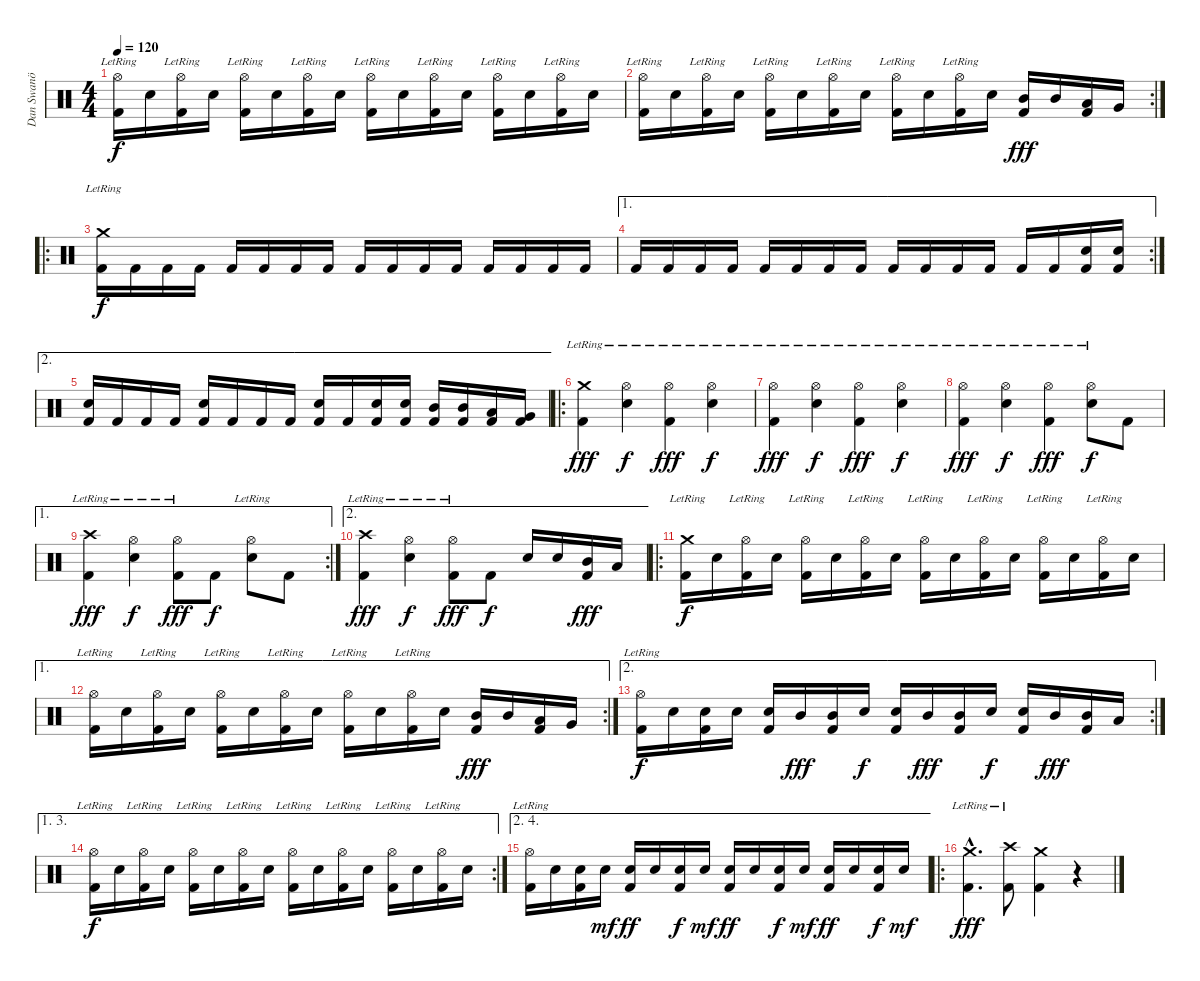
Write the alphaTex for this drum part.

\track ("Dan Swanö" "Dan Swanö") {instrument percussion}
\staff {score}
\articulation defaults
\ts (4 4)
\tempo 120
\clef neutral
\ks c
("Hi-Hat (open)"{lr} "Kick (hit) 2").16{dy f} "Electric Snare (hit)".16 ("Hi-Hat (open)"{lr} "Kick (hit) 2").16 "Electric Snare (hit)".16 ("Hi-Hat (open)"{lr} "Kick (hit) 2").16 "Electric Snare (hit)".16 ("Hi-Hat (open)"{lr} "Kick (hit) 2").16 "Electric Snare (hit)".16 ("Hi-Hat (open)"{lr} "Kick (hit) 2").16 "Electric Snare (hit)".16 ("Hi-Hat (open)"{lr} "Kick (hit) 2").16 "Electric Snare (hit)".16 ("Hi-Hat (open)"{lr} "Kick (hit) 2").16 "Electric Snare (hit)".16 ("Hi-Hat (open)"{lr} "Kick (hit) 2").16 "Electric Snare (hit)".16 |
\rc 2
("Hi-Hat (open)"{lr} "Kick (hit) 2").16 "Electric Snare (hit)".16 ("Hi-Hat (open)"{lr} "Kick (hit) 2").16 "Electric Snare (hit)".16 ("Hi-Hat (open)"{lr} "Kick (hit) 2").16 "Electric Snare (hit)".16 ("Hi-Hat (open)"{lr} "Kick (hit) 2").16 "Electric Snare (hit)".16 ("Hi-Hat (open)"{lr} "Kick (hit) 2").16 "Electric Snare (hit)".16 ("Hi-Hat (open)"{lr} "Kick (hit) 2").16 "Electric Snare (hit)".16 ("Mid Tom (hit)" "Kick (hit) 2").16{dy fff} "Mid Tom (hit)".16 ("Low Tom (hit)" "Kick (hit) 2").16 "Very Low Tom (hit)".16 |
\ro
("Crash medium (hit)"{lr} "Kick (hit) 2").16{dy f} "Kick (hit) 2".16 "Kick (hit) 2".16 "Kick (hit) 2".16 "Kick (hit) 2".16 "Kick (hit) 2".16 "Kick (hit) 2".16 "Kick (hit) 2".16 "Kick (hit) 2".16 "Kick (hit) 2".16 "Kick (hit) 2".16 "Kick (hit) 2".16 "Kick (hit) 2".16 "Kick (hit) 2".16 "Kick (hit) 2".16 "Kick (hit) 2".16 |
\ae 1
\rc 2 "Kick (hit) 2".16 "Kick (hit) 2".16 "Kick (hit) 2".16 "Kick (hit) 2".16 "Kick (hit) 2".16 "Kick (hit) 2".16 "Kick (hit) 2".16 "Kick (hit) 2".16 "Kick (hit) 2".16 "Kick (hit) 2".16 "Kick (hit) 2".16 "Kick (hit) 2".16 "Kick (hit) 2".16 "Kick (hit) 2".16
("Electric Snare (hit)" "Kick (hit) 2").16 ("Electric Snare (hit)" "Kick (hit) 2").16 |
\ae 2
("Electric Snare (hit)" "Kick (hit) 2").16 "Kick (hit) 2".16 "Kick (hit) 2".16 "Kick (hit) 2".16 ("Electric Snare (hit)" "Kick (hit) 2").16 "Kick (hit) 2".16 "Kick (hit) 2".16 "Kick (hit) 2".16 ("Electric Snare (hit)" "Kick (hit) 2").16 "Kick (hit) 2".16 ("Electric Snare (hit)" "Kick (hit) 2").16 ("Electric Snare (hit)" "Kick (hit) 2").16 ("Mid Tom (hit)" "Kick (hit) 2").16 ("Mid Tom (hit)" "Kick (hit) 2").16 ("Low Tom (hit)" "Kick (hit) 2").16 ("Very Low Tom (hit)" "Kick (hit) 2").16 |
\ro
("Crash medium (hit)"{lr} "Kick (hit) 2").4{dy fff} ("Hi-Hat (open)"{lr} "Electric Snare (hit)").4{dy f} ("Hi-Hat (open)"{lr} "Kick (hit) 2").4{dy fff} ("Hi-Hat (open)"{lr} "Electric Snare (hit)").4{dy f} |
("Hi-Hat (open)"{lr} "Kick (hit) 2").4{dy fff} ("Hi-Hat (open)"{lr} "Electric Snare (hit)").4{dy f} ("Hi-Hat (open)"{lr} "Kick (hit) 2").4{dy fff} ("Hi-Hat (open)"{lr} "Electric Snare (hit)").4{dy f} |
("Hi-Hat (open)"{lr} "Kick (hit) 2").4{dy fff} ("Hi-Hat (open)"{lr} "Electric Snare (hit)").4{dy f} ("Hi-Hat (open)"{lr} "Kick (hit) 2").4{dy fff} ("Hi-Hat (open)"{lr} "Electric Snare (hit)").8{dy f} "Kick (hit) 2".8 |
\ae 1
\rc 2
("Crash high (hit)"{lr} "Kick (hit) 2").4{dy fff} ("Hi-Hat (open)"{lr} "Electric Snare (hit)").4{dy f} ("Hi-Hat (open)"{lr} "Kick (hit) 2").8{dy fff} "Kick (hit) 2".8{dy f} ("Hi-Hat (open)"{lr} "Electric Snare (hit)").8 "Kick (hit) 2".8 |
\ae 2
("Crash high (hit)"{lr} "Kick (hit) 2").4{dy fff} ("Hi-Hat (open)"{lr} "Electric Snare (hit)").4{dy f} ("Hi-Hat (open)"{lr} "Kick (hit) 2").8{dy fff} "Kick (hit) 2".8{dy f} "Electric Snare (hit)".16 "Electric Snare (hit)".16 ("Mid Tom (hit)" "Kick (hit) 2").16{dy fff} "Low Tom (hit)".16 |
\ro
("Crash medium (hit)"{lr} "Kick (hit) 2").16{dy f} "Electric Snare (hit)".16 ("Hi-Hat (open)"{lr} "Kick (hit) 2").16 "Electric Snare (hit)".16 ("Hi-Hat (open)"{lr} "Kick (hit) 2").16 "Electric Snare (hit)".16 ("Hi-Hat (open)"{lr} "Kick (hit) 2").16 "Electric Snare (hit)".16 ("Hi-Hat (open)"{lr} "Kick (hit) 2").16 "Electric Snare (hit)".16 ("Hi-Hat (open)"{lr} "Kick (hit) 2").16 "Electric Snare (hit)".16 ("Hi-Hat (open)"{lr} "Kick (hit) 2").16 "Electric Snare (hit)".16 ("Hi-Hat (open)"{lr} "Kick (hit) 2").16 "Electric Snare (hit)".16 |
\ae 1
\rc 2
("Hi-Hat (open)"{lr} "Kick (hit) 2").16 "Electric Snare (hit)".16 ("Hi-Hat (open)"{lr} "Kick (hit) 2").16 "Electric Snare (hit)".16 ("Hi-Hat (open)"{lr} "Kick (hit) 2").16 "Electric Snare (hit)".16 ("Hi-Hat (open)"{lr} "Kick (hit) 2").16 "Electric Snare (hit)".16 ("Hi-Hat (open)"{lr} "Kick (hit) 2").16 "Electric Snare (hit)".16 ("Hi-Hat (open)"{lr} "Kick (hit) 2").16 "Electric Snare (hit)".16 ("Mid Tom (hit)" "Kick (hit) 2").16{dy fff} "Mid Tom (hit)".16 ("Low Tom (hit)" "Kick (hit) 2").16 "Very Low Tom (hit)".16 |
\ae 2
\rc 2
("Hi-Hat (open)"{lr} "Kick (hit) 2").16{dy f} "Electric Snare (hit)".16 ("Electric Snare (hit)" "Kick (hit) 2").16 "Electric Snare (hit)".16 ("Electric Snare (hit)" "Kick (hit) 2").16 "Mid Tom (hit)".16{dy fff} ("Mid Tom (hit)" "Kick (hit) 2").16 "Electric Snare (hit)".16{dy f} ("Electric Snare (hit)" "Kick (hit) 2").16 "Mid Tom (hit)".16{dy fff} ("Mid Tom (hit)" "Kick (hit) 2").16 "Electric Snare (hit)".16{dy f} ("Electric Snare (hit)" "Kick (hit) 2").16 "Mid Tom (hit)".16{dy fff} ("Mid Tom (hit)" "Kick (hit) 2").16 "Low Tom (hit)".16 |
\ae (1 3)
\rc 2
("Hi-Hat (open)"{lr} "Kick (hit) 2").16{dy f} "Electric Snare (hit)".16 ("Hi-Hat (open)"{lr} "Kick (hit) 2").16 "Electric Snare (hit)".16 ("Hi-Hat (open)"{lr} "Kick (hit) 2").16 "Electric Snare (hit)".16 ("Hi-Hat (open)"{lr} "Kick (hit) 2").16 "Electric Snare (hit)".16 ("Hi-Hat (open)"{lr} "Kick (hit) 2").16 "Electric Snare (hit)".16 ("Hi-Hat (open)"{lr} "Kick (hit) 2").16 "Electric Snare (hit)".16 ("Hi-Hat (open)"{lr} "Kick (hit) 2").16 "Electric Snare (hit)".16 ("Hi-Hat (open)"{lr} "Kick (hit) 2").16 "Electric Snare (hit)".16 |
\ae (2 4)
("Hi-Hat (open)"{lr} "Kick (hit) 2").16 "Electric Snare (hit)".16 ("Electric Snare (hit)" "Kick (hit) 2").16 "Electric Snare (hit)".16{dy mf} ("Electric Snare (hit)" "Kick (hit) 2").16{dy ff} "Electric Snare (hit)".16 ("Electric Snare (hit)" "Kick (hit) 2").16{dy f} "Electric Snare (hit)".16{dy mf} ("Electric Snare (hit)" "Kick (hit) 2").16{dy ff} "Electric Snare (hit)".16 ("Electric Snare (hit)" "Kick (hit) 2").16{dy f} "Electric Snare (hit)".16{dy mf} ("Electric Snare (hit)" "Kick (hit) 2").16{dy ff} "Electric Snare (hit)".16 ("Electric Snare (hit)" "Kick (hit) 2").16{dy f} "Electric Snare (hit)".16{dy mf} |
\ro
("Crash medium (hit)"{hac lr} "Kick (hit) 2"{hac}).4{d dy fff} ("Crash high (hit)"{lr} "Kick (hit) 2").8 ("Crash medium (hit)" "Kick (hit) 2").4 r.4
